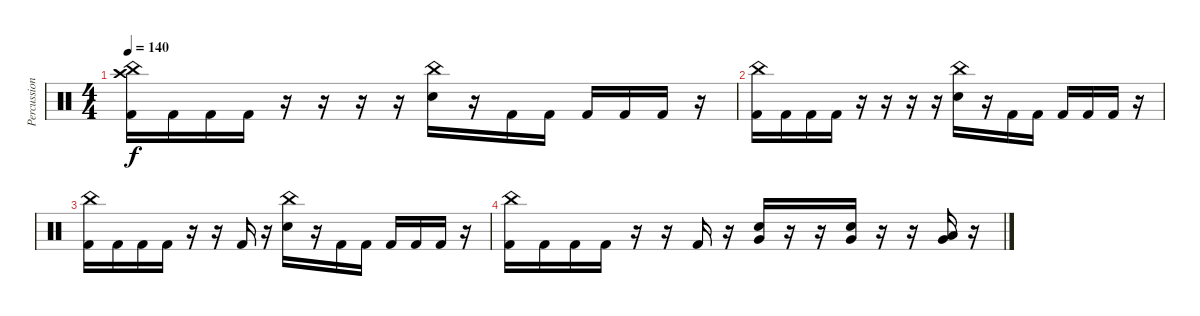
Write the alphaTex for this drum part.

\track ("Percussion" "Percussion") {instrument percussion}
\staff {score}
\articulation defaults
\ts (4 4)
\section ("" "")
\tempo 140
\clef neutral
\ks c
("China (hit)" "Crash high (hit)" "Kick (hit) 2").16{dy f} "Kick (hit) 2".16 "Kick (hit) 2".16 "Kick (hit) 2".16 r.16 r.16 r.16 r.16 ("China (hit)" "Snare (hit) 2").16 r.16 "Kick (hit) 2".16 "Kick (hit) 2".16 "Kick (hit) 2".16 "Kick (hit) 2".16 "Kick (hit) 2".16 r.16 |
("China (hit)" "Kick (hit) 2").16 "Kick (hit) 2".16 "Kick (hit) 2".16 "Kick (hit) 2".16 r.16 r.16 r.16 r.16 ("China (hit)" "Snare (hit) 2").16 r.16 "Kick (hit) 2".16 "Kick (hit) 2".16 "Kick (hit) 2".16 "Kick (hit) 2".16 "Kick (hit) 2".16 r.16 |
("China (hit)" "Kick (hit) 2").16 "Kick (hit) 2".16 "Kick (hit) 2".16 "Kick (hit) 2".16 r.16 r.16 "Kick (hit) 2".16 r.16 ("China (hit)" "Snare (hit) 2").16 r.16 "Kick (hit) 2".16 "Kick (hit) 2".16 "Kick (hit) 2".16 "Kick (hit) 2".16 "Kick (hit) 2".16 r.16 |
("China (hit)" "Kick (hit) 2").16 "Kick (hit) 2".16 "Kick (hit) 2".16 "Kick (hit) 2".16 r.16 r.16 "Kick (hit) 2".16 r.16 ("Very Low Tom (hit)" "Snare (hit) 2").16 r.16 r.16 ("Very Low Tom (hit)" "Snare (hit) 2").16 r.16 r.16 ("Low Tom (hit)" "Very Low Tom (hit)").16 r.16
